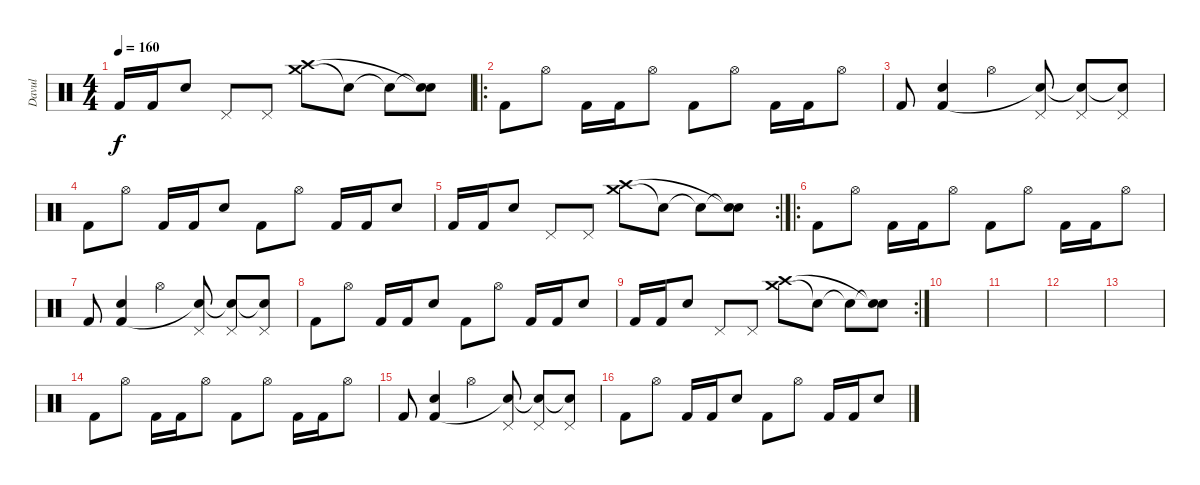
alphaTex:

\track ("Davul" "Davul") {instrument percussion}
\staff {score}
\articulation defaults
\ts (4 4)
\tempo 160
\clef neutral
\ks c "Kick (hit) 2".16{dy f} "Kick (hit) 2".16 "Snare (hit) 2".8 "Pedal Hi-Hat (hit)".8 "Pedal Hi-Hat (hit)".8
("Crash medium (hit)" "Crash high (hit)").8 "Snare (hit)"{t}.8 "Snare (hit)"{t}.8 ("Snare (hit)"{t} "Snare (hit)"{t}).8 |
\ro "Kick (hit) 2".8 "Hi-Hat (open)".8 "Kick (hit) 2".16 "Kick (hit) 2".16 "Hi-Hat (open)".8 "Kick (hit) 2".8 "Hi-Hat (open)".8 "Kick (hit) 2".16 "Kick (hit) 2".16 "Hi-Hat (open)".8
|
"Kick (hit) 2".8 ("Snare (hit) 2" "Kick (hit) 2").4 "Hi-Hat (open)".4 ("Pedal Hi-Hat (hit)" "Snare (hit)"{t}).8 ("Pedal Hi-Hat (hit)" "Snare (hit)"{t}).8 ("Pedal Hi-Hat (hit)" "Snare (hit)"{t}).8 |
"Kick (hit) 2".8 "Hi-Hat (open)".8 "Kick (hit) 2".16 "Kick (hit) 2".16 "Snare (hit) 2".8 "Kick (hit) 2".8 "Hi-Hat (open)".8 "Kick (hit) 2".16 "Kick (hit) 2".16 "Snare (hit) 2".8 |
\rc 2 "Kick (hit) 2".16 "Kick (hit) 2".16 "Snare (hit) 2".8 "Pedal Hi-Hat (hit)".8 "Pedal Hi-Hat (hit)".8
("Crash medium (hit)" "Crash high (hit)").8 "Snare (hit)"{t}.8 "Snare (hit)"{t}.8 ("Snare (hit)"{t} "Snare (hit)"{t}).8 |
\ro "Kick (hit) 2".8 "Hi-Hat (open)".8 "Kick (hit) 2".16 "Kick (hit) 2".16 "Hi-Hat (open)".8 "Kick (hit) 2".8 "Hi-Hat (open)".8 "Kick (hit) 2".16 "Kick (hit) 2".16 "Hi-Hat (open)".8
|
"Kick (hit) 2".8 ("Snare (hit) 2" "Kick (hit) 2").4 "Hi-Hat (open)".4 ("Pedal Hi-Hat (hit)" "Snare (hit)"{t}).8 ("Pedal Hi-Hat (hit)" "Snare (hit)"{t}).8 ("Pedal Hi-Hat (hit)" "Snare (hit)"{t}).8 |
"Kick (hit) 2".8 "Hi-Hat (open)".8 "Kick (hit) 2".16 "Kick (hit) 2".16 "Snare (hit) 2".8 "Kick (hit) 2".8 "Hi-Hat (open)".8 "Kick (hit) 2".16 "Kick (hit) 2".16 "Snare (hit) 2".8 |
\rc 2 "Kick (hit) 2".16 "Kick (hit) 2".16 "Snare (hit) 2".8 "Pedal Hi-Hat (hit)".8 "Pedal Hi-Hat (hit)".8
("Crash medium (hit)" "Crash high (hit)").8 "Snare (hit)"{t}.8 "Snare (hit)"{t}.8 ("Snare (hit)"{t} "Snare (hit)"{t}).8 |
|
|
|
|
"Kick (hit) 2".8 "Hi-Hat (open)".8 "Kick (hit) 2".16 "Kick (hit) 2".16 "Hi-Hat (open)".8 "Kick (hit) 2".8 "Hi-Hat (open)".8 "Kick (hit) 2".16 "Kick (hit) 2".16 "Hi-Hat (open)".8 |
"Kick (hit) 2".8 ("Snare (hit) 2" "Kick (hit) 2").4 "Hi-Hat (open)".4 ("Pedal Hi-Hat (hit)" "Snare (hit)"{t}).8 ("Pedal Hi-Hat (hit)" "Snare (hit)"{t}).8 ("Pedal Hi-Hat (hit)" "Snare (hit)"{t}).8 |
"Kick (hit) 2".8 "Hi-Hat (open)".8 "Kick (hit) 2".16 "Kick (hit) 2".16 "Snare (hit) 2".8 "Kick (hit) 2".8 "Hi-Hat (open)".8 "Kick (hit) 2".16 "Kick (hit) 2".16 "Snare (hit) 2".8
